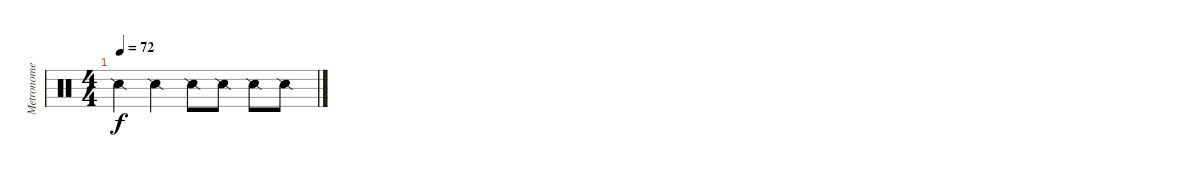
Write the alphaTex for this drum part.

\track ("Metronome" "Metronome") {instrument percussion}
\staff {score}
\articulation defaults
\ts (4 4)
\tempo 72
\clef neutral
\ks c "Snare (side stick) 2".4{dy f} "Snare (side stick) 2".4 "Snare (side stick) 2".8 "Snare (side stick) 2".8 "Snare (side stick) 2".8 "Snare (side stick) 2".8
